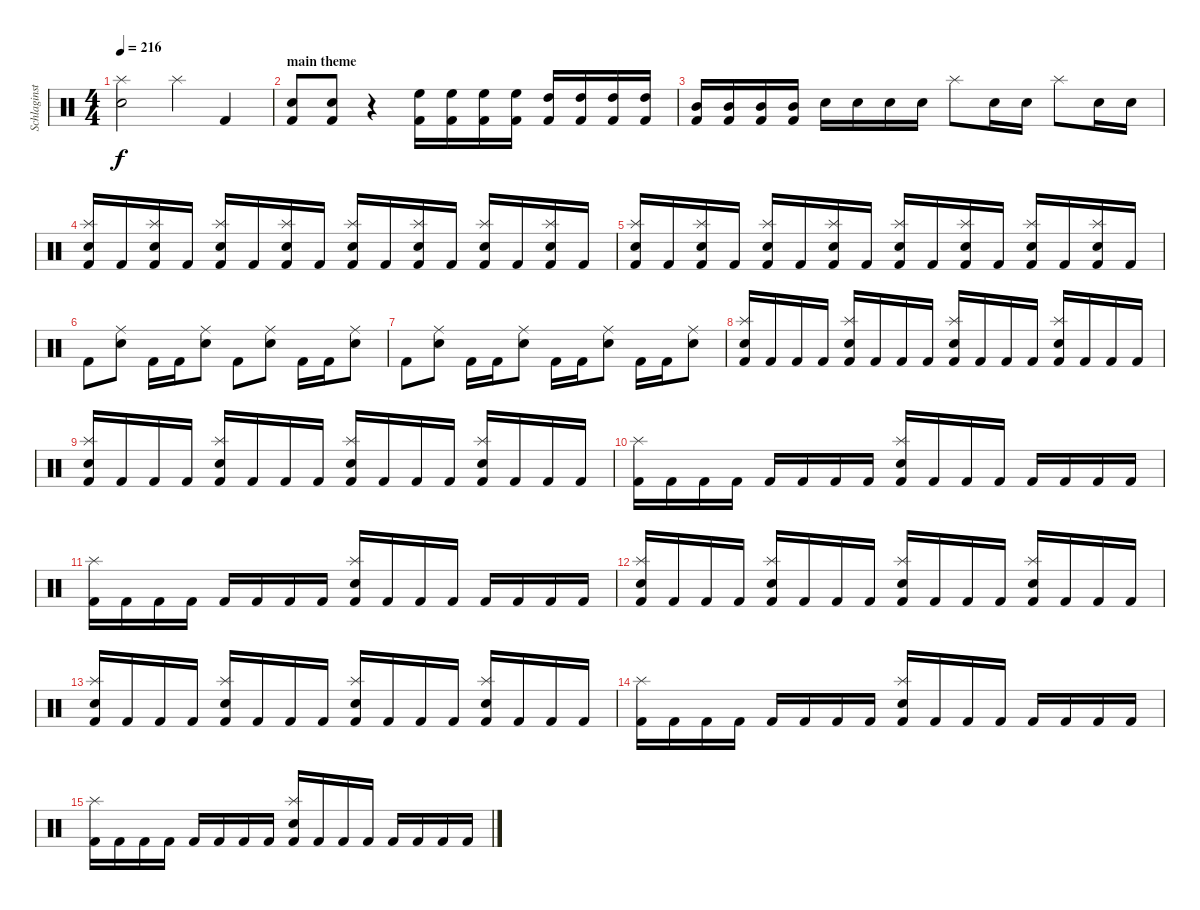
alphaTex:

\track ("Schlaginstrumente - Auswahl" "Schlaginst") {instrument percussion}
\staff {score}
\articulation defaults
\ts (4 4)
\tempo 216
\clef neutral
\ks c
("Electric Snare (hit)" "Splash (hit)").2{dy f} "Splash (hit)".4 "Kick (hit) 2".4 |
\section ("" "main theme")
("Electric Snare (hit)" "Kick (hit) 2").8 ("Electric Snare (hit)" "Kick (hit) 2").8 r.4 ("High Floor Tom (hit)" "Kick (hit) 2").16 ("High Floor Tom (hit)" "Kick (hit) 2").16 ("High Floor Tom (hit)" "Kick (hit) 2").16 ("High Floor Tom (hit)" "Kick (hit) 2").16 ("High Tom (hit)" "Kick (hit) 2").16 ("High Tom (hit)" "Kick (hit) 2").16 ("High Tom (hit)" "Kick (hit) 2").16 ("High Tom (hit)" "Kick (hit) 2").16 |
("Mid Tom (hit)" "Kick (hit) 2").16 ("Mid Tom (hit)" "Kick (hit) 2").16 ("Mid Tom (hit)" "Kick (hit) 2").16 ("Mid Tom (hit)" "Kick (hit) 2").16 "Electric Snare (hit)".16 "Electric Snare (hit)".16 "Electric Snare (hit)".16 "Electric Snare (hit)".16 "Splash (hit)".8 "Electric Snare (hit)".16 "Electric Snare (hit)".16 "Splash (hit)".8 "Electric Snare (hit)".16 "Electric Snare (hit)".16 |
("Electric Snare (hit)" "Splash (hit)" "Kick (hit) 2").16 "Kick (hit) 2".16 ("Electric Snare (hit)" "Splash (hit)" "Kick (hit) 2").16 "Kick (hit) 2".16 ("Electric Snare (hit)" "Splash (hit)" "Kick (hit) 2").16 "Kick (hit) 2".16 ("Electric Snare (hit)" "Splash (hit)" "Kick (hit) 2").16 "Kick (hit) 2".16 ("Electric Snare (hit)" "Splash (hit)" "Kick (hit) 2").16 "Kick (hit) 2".16 ("Electric Snare (hit)" "Splash (hit)" "Kick (hit) 2").16 "Kick (hit) 2".16 ("Electric Snare (hit)" "Splash (hit)" "Kick (hit) 2").16 "Kick (hit) 2".16 ("Electric Snare (hit)" "Splash (hit)" "Kick (hit) 2").16 "Kick (hit) 2".16 |
("Electric Snare (hit)" "Splash (hit)" "Kick (hit) 2").16 "Kick (hit) 2".16 ("Electric Snare (hit)" "Splash (hit)" "Kick (hit) 2").16 "Kick (hit) 2".16 ("Electric Snare (hit)" "Splash (hit)" "Kick (hit) 2").16 "Kick (hit) 2".16 ("Electric Snare (hit)" "Splash (hit)" "Kick (hit) 2").16 "Kick (hit) 2".16 ("Electric Snare (hit)" "Splash (hit)" "Kick (hit) 2").16 "Kick (hit) 2".16 ("Electric Snare (hit)" "Splash (hit)" "Kick (hit) 2").16 "Kick (hit) 2".16 ("Electric Snare (hit)" "Splash (hit)" "Kick (hit) 2").16 "Kick (hit) 2".16 ("Electric Snare (hit)" "Splash (hit)" "Kick (hit) 2").16 "Kick (hit) 2".16 |
"Kick (hit) 2".8 ("Electric Snare (hit)" "Ride (middle)").8 "Kick (hit) 2".16 "Kick (hit) 2".16 ("Electric Snare (hit)" "Ride (middle)").8 "Kick (hit) 2".8 ("Electric Snare (hit)" "Ride (middle)").8 "Kick (hit) 2".16 "Kick (hit) 2".16 ("Electric Snare (hit)" "Ride (middle)").8 |
"Kick (hit) 2".8 ("Electric Snare (hit)" "Ride (middle)").8 "Kick (hit) 2".16 "Kick (hit) 2".16 ("Electric Snare (hit)" "Ride (middle)").8 "Kick (hit) 2".16 "Kick (hit) 2".16 ("Electric Snare (hit)" "Ride (middle)").8 "Kick (hit) 2".16 "Kick (hit) 2".16 ("Electric Snare (hit)" "Ride (middle)").8 |
("Electric Snare (hit)" "Splash (hit)" "Kick (hit) 2").16 "Kick (hit) 2".16 "Kick (hit) 2".16 "Kick (hit) 2".16 ("Electric Snare (hit)" "Splash (hit)" "Kick (hit) 2").16 "Kick (hit) 2".16 "Kick (hit) 2".16 "Kick (hit) 2".16 ("Electric Snare (hit)" "Splash (hit)" "Kick (hit) 2").16 "Kick (hit) 2".16 "Kick (hit) 2".16 "Kick (hit) 2".16 ("Electric Snare (hit)" "Splash (hit)" "Kick (hit) 2").16 "Kick (hit) 2".16 "Kick (hit) 2".16 "Kick (hit) 2".16 |
("Electric Snare (hit)" "Splash (hit)" "Kick (hit) 2").16 "Kick (hit) 2".16 "Kick (hit) 2".16 "Kick (hit) 2".16 ("Electric Snare (hit)" "Splash (hit)" "Kick (hit) 2").16 "Kick (hit) 2".16 "Kick (hit) 2".16 "Kick (hit) 2".16 ("Electric Snare (hit)" "Splash (hit)" "Kick (hit) 2").16 "Kick (hit) 2".16 "Kick (hit) 2".16 "Kick (hit) 2".16 ("Electric Snare (hit)" "Splash (hit)" "Kick (hit) 2").16 "Kick (hit) 2".16 "Kick (hit) 2".16 "Kick (hit) 2".16 |
("Splash (hit)" "Kick (hit) 2").16 "Kick (hit) 2".16 "Kick (hit) 2".16 "Kick (hit) 2".16 "Kick (hit) 2".16 "Kick (hit) 2".16 "Kick (hit) 2".16 "Kick (hit) 2".16 ("Electric Snare (hit)" "Splash (hit)" "Kick (hit) 2").16 "Kick (hit) 2".16 "Kick (hit) 2".16 "Kick (hit) 2".16 "Kick (hit) 2".16 "Kick (hit) 2".16 "Kick (hit) 2".16 "Kick (hit) 2".16 |
("Splash (hit)" "Kick (hit) 2").16 "Kick (hit) 2".16 "Kick (hit) 2".16 "Kick (hit) 2".16 "Kick (hit) 2".16 "Kick (hit) 2".16 "Kick (hit) 2".16 "Kick (hit) 2".16 ("Electric Snare (hit)" "Splash (hit)" "Kick (hit) 2").16 "Kick (hit) 2".16 "Kick (hit) 2".16 "Kick (hit) 2".16 "Kick (hit) 2".16 "Kick (hit) 2".16 "Kick (hit) 2".16 "Kick (hit) 2".16 |
("Electric Snare (hit)" "Splash (hit)" "Kick (hit) 2").16 "Kick (hit) 2".16 "Kick (hit) 2".16 "Kick (hit) 2".16 ("Electric Snare (hit)" "Splash (hit)" "Kick (hit) 2").16 "Kick (hit) 2".16 "Kick (hit) 2".16 "Kick (hit) 2".16 ("Electric Snare (hit)" "Splash (hit)" "Kick (hit) 2").16 "Kick (hit) 2".16 "Kick (hit) 2".16 "Kick (hit) 2".16 ("Electric Snare (hit)" "Splash (hit)" "Kick (hit) 2").16 "Kick (hit) 2".16 "Kick (hit) 2".16 "Kick (hit) 2".16 |
("Electric Snare (hit)" "Splash (hit)" "Kick (hit) 2").16 "Kick (hit) 2".16 "Kick (hit) 2".16 "Kick (hit) 2".16 ("Electric Snare (hit)" "Splash (hit)" "Kick (hit) 2").16 "Kick (hit) 2".16 "Kick (hit) 2".16 "Kick (hit) 2".16 ("Electric Snare (hit)" "Splash (hit)" "Kick (hit) 2").16 "Kick (hit) 2".16 "Kick (hit) 2".16 "Kick (hit) 2".16 ("Electric Snare (hit)" "Splash (hit)" "Kick (hit) 2").16 "Kick (hit) 2".16 "Kick (hit) 2".16 "Kick (hit) 2".16 |
("Splash (hit)" "Kick (hit) 2").16 "Kick (hit) 2".16 "Kick (hit) 2".16 "Kick (hit) 2".16 "Kick (hit) 2".16 "Kick (hit) 2".16 "Kick (hit) 2".16 "Kick (hit) 2".16 ("Electric Snare (hit)" "Splash (hit)" "Kick (hit) 2").16 "Kick (hit) 2".16 "Kick (hit) 2".16 "Kick (hit) 2".16 "Kick (hit) 2".16 "Kick (hit) 2".16 "Kick (hit) 2".16 "Kick (hit) 2".16 |
("Splash (hit)" "Kick (hit) 2").16 "Kick (hit) 2".16 "Kick (hit) 2".16 "Kick (hit) 2".16 "Kick (hit) 2".16 "Kick (hit) 2".16 "Kick (hit) 2".16 "Kick (hit) 2".16 ("Electric Snare (hit)" "Splash (hit)" "Kick (hit) 2").16 "Kick (hit) 2".16 "Kick (hit) 2".16 "Kick (hit) 2".16 "Kick (hit) 2".16 "Kick (hit) 2".16 "Kick (hit) 2".16 "Kick (hit) 2".16
